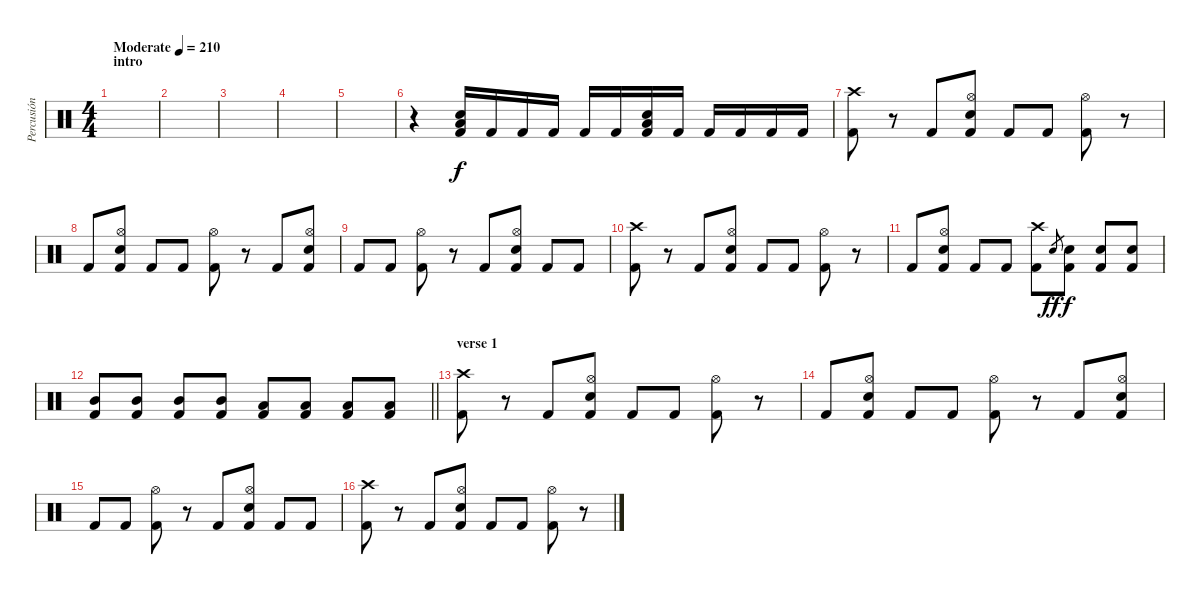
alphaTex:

\track ("Percusión" "Percusión") {instrument percussion}
\staff {score}
\articulation defaults
\ts (4 4)
\section ("" "intro")
\tempo (210 "Moderate")
\clef neutral
\ks c
|
|
|
|
|
r.4 ("Low Tom (hit)" "Electric Snare (hit)" "Kick (hit) 2").16 "Kick (hit) 2".16 "Kick (hit) 2".16 "Kick (hit) 2".16 "Kick (hit) 2".16 "Kick (hit) 2".16 ("Low Tom (hit)" "Electric Snare (hit)" "Kick (hit) 2").16 "Kick (hit) 2".16 "Kick (hit) 2".16 "Kick (hit) 2".16 "Kick (hit) 2".16 "Kick (hit) 2".16 |
("Crash high (hit)" "Kick (hit) 2").8 r.8 "Kick (hit) 2".8 ("Hi-Hat (open)" "Snare (hit) 2" "Kick (hit) 2").8 "Kick (hit) 2".8 "Kick (hit) 2".8 ("Hi-Hat (open)" "Kick (hit) 2").8 r.8 |
"Kick (hit) 2".8 ("Hi-Hat (open)" "Snare (hit) 2" "Kick (hit) 2").8 "Kick (hit) 2".8 "Kick (hit) 2".8 ("Hi-Hat (open)" "Kick (hit) 2").8 r.8 "Kick (hit) 2".8 ("Hi-Hat (open)" "Snare (hit) 2" "Kick (hit) 2").8 |
"Kick (hit) 2".8 "Kick (hit) 2".8 ("Hi-Hat (open)" "Kick (hit) 2").8 r.8 "Kick (hit) 2".8 ("Hi-Hat (open)" "Snare (hit) 2" "Kick (hit) 2").8 "Kick (hit) 2".8 "Kick (hit) 2".8 |
("Crash high (hit)" "Kick (hit) 2").8 r.8 "Kick (hit) 2".8 ("Hi-Hat (open)" "Snare (hit) 2" "Kick (hit) 2").8 "Kick (hit) 2".8 "Kick (hit) 2".8 ("Hi-Hat (open)" "Kick (hit) 2").8 r.8 |
"Kick (hit) 2".8 ("Hi-Hat (open)" "Snare (hit) 2" "Kick (hit) 2").8 "Kick (hit) 2".8 "Kick (hit) 2".8 ("Crash high (hit)" "Kick (hit) 2").8 "Electric Snare (hit)".8{gr dy ff} ("Electric Snare (hit)" "Kick (hit) 2").8{dy f} ("Electric Snare (hit)" "Kick (hit) 2").8 ("Electric Snare (hit)" "Kick (hit) 2").8 |
\barLineRight lightlight
("Mid Tom (hit)" "Kick (hit) 2").8 ("Mid Tom (hit)" "Kick (hit) 2").8 ("Mid Tom (hit)" "Kick (hit) 2").8 ("Mid Tom (hit)" "Kick (hit) 2").8 ("Low Tom (hit)" "Kick (hit) 2").8 ("Low Tom (hit)" "Kick (hit) 2").8 ("Low Floor Tom (hit)" "Kick (hit) 2").8 ("Low Floor Tom (hit)" "Kick (hit) 2").8 |
\section ("" "verse 1")
("Crash high (hit)" "Kick (hit) 2").8 r.8 "Kick (hit) 2".8 ("Hi-Hat (open)" "Snare (hit) 2" "Kick (hit) 2").8 "Kick (hit) 2".8 "Kick (hit) 2".8 ("Hi-Hat (open)" "Kick (hit) 2").8 r.8 |
"Kick (hit) 2".8 ("Hi-Hat (open)" "Snare (hit) 2" "Kick (hit) 2").8 "Kick (hit) 2".8 "Kick (hit) 2".8 ("Hi-Hat (open)" "Kick (hit) 2").8 r.8 "Kick (hit) 2".8 ("Hi-Hat (open)" "Snare (hit) 2" "Kick (hit) 2").8 |
"Kick (hit) 2".8 "Kick (hit) 2".8 ("Hi-Hat (open)" "Kick (hit) 2").8 r.8 "Kick (hit) 2".8 ("Hi-Hat (open)" "Snare (hit) 2" "Kick (hit) 2").8 "Kick (hit) 2".8 "Kick (hit) 2".8 |
("Crash high (hit)" "Kick (hit) 2").8 r.8 "Kick (hit) 2".8 ("Hi-Hat (open)" "Snare (hit) 2" "Kick (hit) 2").8 "Kick (hit) 2".8 "Kick (hit) 2".8 ("Hi-Hat (open)" "Kick (hit) 2").8 r.8
